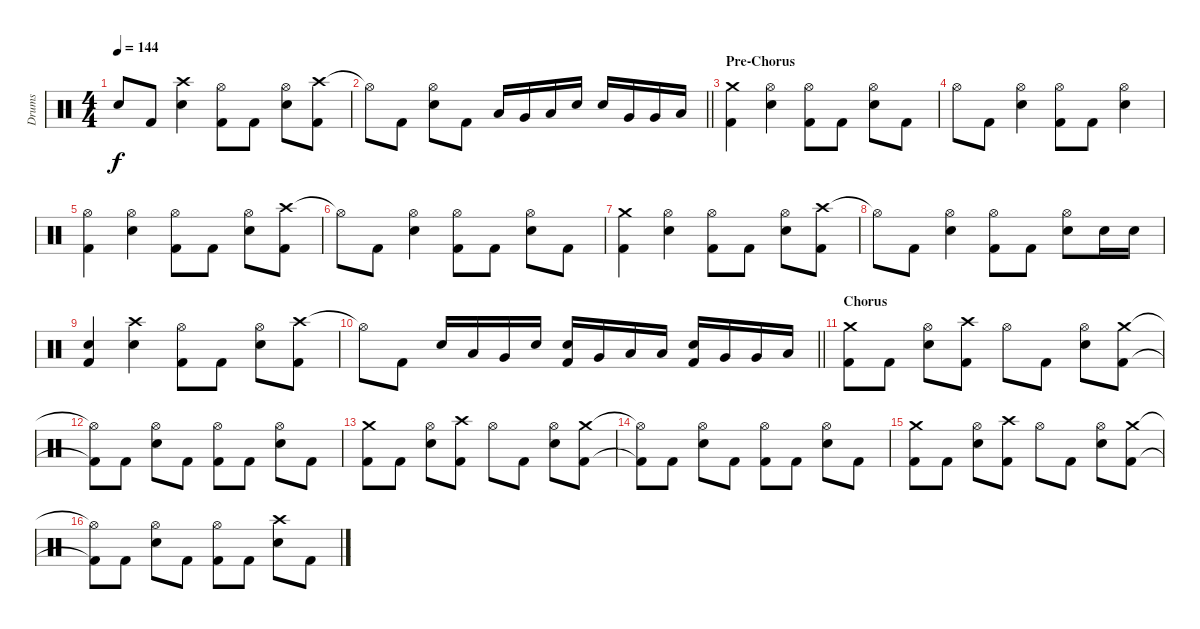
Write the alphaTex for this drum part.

\track ("Drums" "Drums") {instrument percussion}
\staff {score}
\articulation defaults
\ts (4 4)
\tempo 144
\clef neutral
\ks c "Electric Snare (hit)".8{dy f} "Kick (hit) 2".8
("Crash high (hit)" "Electric Snare (hit)").4 ("Hi-Hat (open)" "Kick (hit) 2").8 "Kick (hit) 2".8 ("Hi-Hat (open)" "Electric Snare (hit)").8 ("Crash high (hit)" "Kick (hit) 2").8 |
\barLineRight lightlight "Hi-Hat (open)"{t}.8 "Kick (hit) 2".8
("Hi-Hat (open)" "Electric Snare (hit)").8 "Kick (hit) 2".8 "Low Tom (hit)".16 "Very Low Tom (hit)".16 "Low Tom (hit)".16 "Electric Snare (hit)".16 "Electric Snare (hit)".16 "Very Low Tom (hit)".16 "Very Low Tom (hit)".16 "Low Floor Tom (hit)".16 |
\section ("" "Pre-Chorus")
("Crash medium (hit)" "Kick (hit) 2").4 ("Hi-Hat (open)" "Electric Snare (hit)").4 ("Hi-Hat (open)" "Kick (hit) 2").8 "Kick (hit) 2".8 ("Hi-Hat (open)" "Electric Snare (hit)").8 "Kick (hit) 2".8 |
"Hi-Hat (open)".8 "Kick (hit) 2".8 ("Hi-Hat (open)" "Electric Snare (hit)").4 ("Hi-Hat (open)" "Kick (hit) 2").8 "Kick (hit) 2".8 ("Hi-Hat (open)" "Electric Snare (hit)").4 |
("Hi-Hat (open)" "Kick (hit) 2").4 ("Hi-Hat (open)" "Electric Snare (hit)").4 ("Hi-Hat (open)" "Kick (hit) 2").8 "Kick (hit) 2".8 ("Hi-Hat (open)" "Electric Snare (hit)").8 ("Crash high (hit)" "Kick (hit) 2").8 |
"Hi-Hat (open)"{t}.8 "Kick (hit) 2".8 ("Hi-Hat (open)" "Electric Snare (hit)").4 ("Hi-Hat (open)" "Kick (hit) 2").8 "Kick (hit) 2".8 ("Hi-Hat (open)" "Electric Snare (hit)").8 "Kick (hit) 2".8 |
("Crash medium (hit)" "Kick (hit) 2").4 ("Hi-Hat (open)" "Electric Snare (hit)").4 ("Hi-Hat (open)" "Kick (hit) 2").8 "Kick (hit) 2".8 ("Hi-Hat (open)" "Electric Snare (hit)").8 ("Crash high (hit)" "Kick (hit) 2").8 |
"Hi-Hat (open)"{t}.8 "Kick (hit) 2".8 ("Hi-Hat (open)" "Electric Snare (hit)").4 ("Hi-Hat (open)" "Kick (hit) 2").8 "Kick (hit) 2".8 ("Hi-Hat (open)" "Electric Snare (hit)").8 "Electric Snare (hit)".16 "Electric Snare (hit)".16 |
("Electric Snare (hit)" "Kick (hit) 2").4 ("Crash high (hit)" "Electric Snare (hit)").4 ("Hi-Hat (open)" "Kick (hit) 2").8 "Kick (hit) 2".8 ("Hi-Hat (open)" "Electric Snare (hit)").8 ("Crash high (hit)" "Kick (hit) 2").8 |
\barLineRight lightlight "Hi-Hat (open)"{t}.8 "Kick (hit) 2".8 "Electric Snare (hit)".16 "Low Tom (hit)".16 "Very Low Tom (hit)".16 "Electric Snare (hit)".16
("Electric Snare (hit)" "Kick (hit) 2").16 "Very Low Tom (hit)".16 "Low Tom (hit)".16 "Low Floor Tom (hit)".16 ("Electric Snare (hit)" "Kick (hit) 2").16 "Very Low Tom (hit)".16 "Very Low Tom (hit)".16 "Low Floor Tom (hit)".16 |
\section ("" "Chorus")
("Crash medium (hit)" "Kick (hit) 2").8 "Kick (hit) 2".8 ("Hi-Hat (open)" "Electric Snare (hit)").8 ("Crash high (hit)" "Kick (hit) 2").8 "Hi-Hat (open)".8 "Kick (hit) 2".8 ("Hi-Hat (open)" "Electric Snare (hit)").8 ("Crash medium (hit)" "Kick (hit) 2").8 |
("Hi-Hat (open)"{t} "Kick (hit) 2"{t}).8 "Kick (hit) 2".8 ("Hi-Hat (open)" "Electric Snare (hit)").8 "Kick (hit) 2".8 ("Hi-Hat (open)" "Kick (hit) 2").8 "Kick (hit) 2".8 ("Hi-Hat (open)" "Electric Snare (hit)").8 "Kick (hit) 2".8 |
("Crash medium (hit)" "Kick (hit) 2").8 "Kick (hit) 2".8 ("Hi-Hat (open)" "Electric Snare (hit)").8 ("Crash high (hit)" "Kick (hit) 2").8 "Hi-Hat (open)".8 "Kick (hit) 2".8 ("Hi-Hat (open)" "Electric Snare (hit)").8 ("Crash medium (hit)" "Kick (hit) 2").8 |
("Hi-Hat (open)"{t} "Kick (hit) 2"{t}).8 "Kick (hit) 2".8 ("Hi-Hat (open)" "Electric Snare (hit)").8 "Kick (hit) 2".8 ("Hi-Hat (open)" "Kick (hit) 2").8 "Kick (hit) 2".8 ("Hi-Hat (open)" "Electric Snare (hit)").8 "Kick (hit) 2".8 |
("Crash medium (hit)" "Kick (hit) 2").8 "Kick (hit) 2".8 ("Hi-Hat (open)" "Electric Snare (hit)").8 ("Crash high (hit)" "Kick (hit) 2").8 "Hi-Hat (open)".8 "Kick (hit) 2".8 ("Hi-Hat (open)" "Electric Snare (hit)").8 ("Crash medium (hit)" "Kick (hit) 2").8 |
("Hi-Hat (open)"{t} "Kick (hit) 2"{t}).8 "Kick (hit) 2".8 ("Hi-Hat (open)" "Electric Snare (hit)").8 "Kick (hit) 2".8 ("Hi-Hat (open)" "Kick (hit) 2").8 "Kick (hit) 2".8 ("Crash high (hit)" "Electric Snare (hit)").8 "Kick (hit) 2".8
